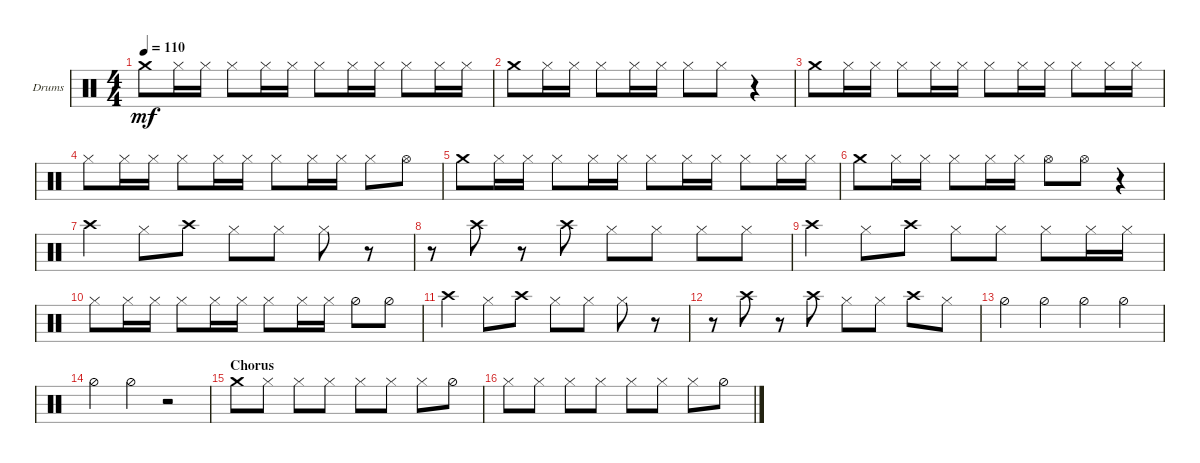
\defaultSystemsLayout 4
\bracketExtendMode groupsimilarinstruments
\firstSystemTrackNameOrientation horizontal
\otherSystemsTrackNameOrientation horizontal
\track ("Drumkit" "Drums") {instrument percussion}
\staff {score}
\articulation defaults
\ts (4 4)
\tempo 110
\clef neutral
\ks c "Crash medium (hit)".8{dy mf} "Hi-Hat (closed)".16 "Hi-Hat (closed)".16 "Hi-Hat (closed)".8 "Hi-Hat (closed)".16 "Hi-Hat (closed)".16 "Hi-Hat (closed)".8 "Hi-Hat (closed)".16 "Hi-Hat (closed)".16 "Hi-Hat (closed)".8 "Hi-Hat (closed)".16 "Hi-Hat (closed)".16
|
"Crash medium (hit)".8 "Hi-Hat (closed)".16 "Hi-Hat (closed)".16 "Hi-Hat (closed)".8 "Hi-Hat (closed)".16 "Hi-Hat (closed)".16 "Hi-Hat (closed)".8 "Hi-Hat (closed)".8 r.4 |
"Crash medium (hit)".8 "Hi-Hat (closed)".16 "Hi-Hat (closed)".16 "Hi-Hat (closed)".8 "Hi-Hat (closed)".16 "Hi-Hat (closed)".16 "Hi-Hat (closed)".8 "Hi-Hat (closed)".16 "Hi-Hat (closed)".16 "Hi-Hat (closed)".8 "Hi-Hat (closed)".16 "Hi-Hat (closed)".16 |
"Hi-Hat (closed)".8 "Hi-Hat (closed)".16 "Hi-Hat (closed)".16 "Hi-Hat (closed)".8 "Hi-Hat (closed)".16 "Hi-Hat (closed)".16 "Hi-Hat (closed)".8 "Hi-Hat (closed)".16 "Hi-Hat (closed)".16 "Hi-Hat (closed)".8 "Hi-Hat (open)".8 |
"Crash medium (hit)".8 "Hi-Hat (closed)".16 "Hi-Hat (closed)".16 "Hi-Hat (closed)".8 "Hi-Hat (closed)".16 "Hi-Hat (closed)".16 "Hi-Hat (closed)".8 "Hi-Hat (closed)".16 "Hi-Hat (closed)".16 "Hi-Hat (closed)".8 "Hi-Hat (closed)".16 "Hi-Hat (closed)".16 |
"Crash medium (hit)".8 "Hi-Hat (closed)".16 "Hi-Hat (closed)".16 "Hi-Hat (closed)".8 "Hi-Hat (closed)".16 "Hi-Hat (closed)".16 "Hi-Hat (open)".8 "Hi-Hat (open)".8 r.4 |
"Crash high (hit)".4 "Hi-Hat (closed)".8 "Crash high (hit)".8 "Hi-Hat (closed)".8 "Hi-Hat (closed)".8 "Hi-Hat (closed)".8 r.8 |
r.8 "Crash high (hit)".8 r.8 "Crash high (hit)".8 "Hi-Hat (closed)".8 "Hi-Hat (closed)".8 "Hi-Hat (closed)".8 "Hi-Hat (closed)".8 |
"Crash high (hit)".4 "Hi-Hat (closed)".8 "Crash high (hit)".8 "Hi-Hat (closed)".8 "Hi-Hat (closed)".8 "Hi-Hat (closed)".8 "Hi-Hat (closed)".16 "Hi-Hat (closed)".16 |
"Hi-Hat (closed)".8 "Hi-Hat (closed)".16 "Hi-Hat (closed)".16 "Hi-Hat (closed)".8 "Hi-Hat (closed)".16 "Hi-Hat (closed)".16 "Hi-Hat (closed)".8 "Hi-Hat (closed)".16 "Hi-Hat (closed)".16 "Hi-Hat (half)".8 "Hi-Hat (half)".8 |
"Crash high (hit)".4 "Hi-Hat (closed)".8 "Crash high (hit)".8 "Hi-Hat (closed)".8 "Hi-Hat (closed)".8 "Hi-Hat (closed)".8 r.8 |
r.8 "Crash high (hit)".8 r.8 "Crash high (hit)".8 "Hi-Hat (closed)".8 "Hi-Hat (closed)".8 "Crash high (hit)".8 "Hi-Hat (closed)".8 |
"Hi-Hat (half)".4 "Hi-Hat (half)".4 "Hi-Hat (half)".4 "Hi-Hat (half)".4 |
"Hi-Hat (half)".4 "Hi-Hat (half)".4 r.2 |
\section ("" "Chorus")
"Crash medium (hit)".8 "Hi-Hat (closed)".8 "Hi-Hat (closed)".8 "Hi-Hat (closed)".8 "Hi-Hat (closed)".8 "Hi-Hat (closed)".8 "Hi-Hat (closed)".8 "Hi-Hat (half)".8 |
"Hi-Hat (closed)".8 "Hi-Hat (closed)".8 "Hi-Hat (closed)".8 "Hi-Hat (closed)".8 "Hi-Hat (closed)".8 "Hi-Hat (closed)".8 "Hi-Hat (closed)".8 "Hi-Hat (half)".8
